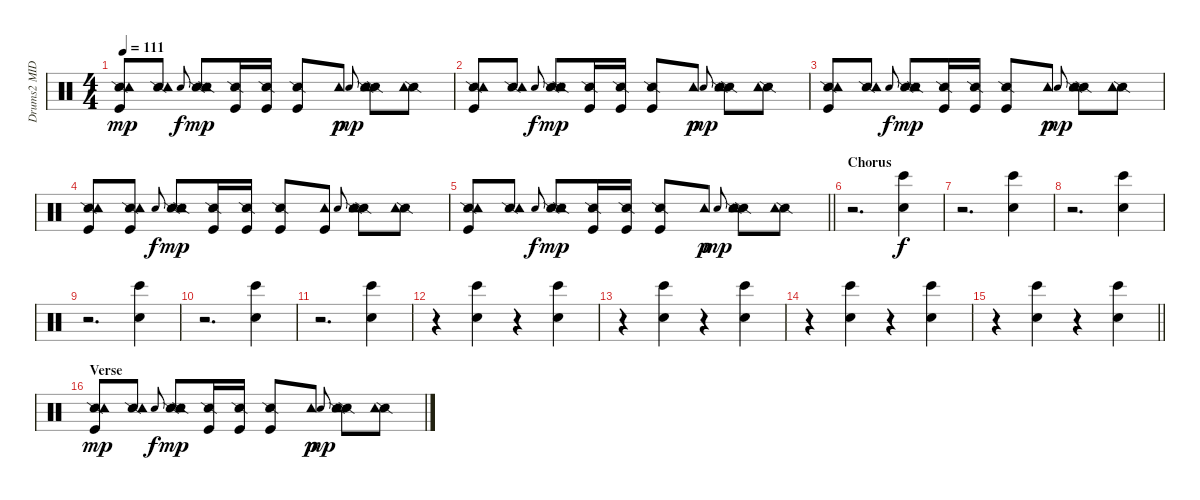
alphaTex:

\track ("Drums2 MIDI" "Drums2 MID") {instrument percussion}
\staff {score}
\articulation defaults
\ts (4 4)
\tempo 111
\clef neutral
\ks c
("Snare (side stick) 2" "Tambourine (hit)" "Kick (hit)").8{dy mp} ("Snare (side stick) 2" "Tambourine (hit)").8 "Snare (hit)".8{gr onbeat dy f} ("Snare (side stick) 2" "Tambourine (hit)" "Snare (side stick) 2").8{dy mp} ("Snare (side stick) 2" "Kick (hit)").16 ("Snare (side stick) 2" "Kick (hit)").16 ("Snare (side stick) 2" "Kick (hit)").8 "Tambourine (hit)".8{dy p} "Snare (hit)".8{gr onbeat dy mp} ("Snare (side stick) 2" "Tambourine (hit)" "Snare (side stick) 2").8 ("Snare (side stick) 2" "Tambourine (hit)").8 |
("Snare (side stick) 2" "Tambourine (hit)" "Kick (hit)").8 ("Snare (side stick) 2" "Tambourine (hit)").8 "Snare (hit)".8{gr onbeat dy f} ("Snare (side stick) 2" "Tambourine (hit)" "Snare (side stick) 2").8{dy mp} ("Snare (side stick) 2" "Kick (hit)").16 ("Snare (side stick) 2" "Kick (hit)").16 ("Snare (side stick) 2" "Kick (hit)").8 "Tambourine (hit)".8{dy p} "Snare (hit)".8{gr onbeat dy mp} ("Snare (side stick) 2" "Tambourine (hit)" "Snare (side stick) 2").8 ("Snare (side stick) 2" "Tambourine (hit)").8 |
("Snare (side stick) 2" "Tambourine (hit)" "Kick (hit)").8 ("Snare (side stick) 2" "Tambourine (hit)").8 "Snare (hit)".8{gr onbeat dy f} ("Snare (side stick) 2" "Tambourine (hit)" "Snare (side stick) 2").8{dy mp} ("Snare (side stick) 2" "Kick (hit)").16 ("Snare (side stick) 2" "Kick (hit)").16 ("Snare (side stick) 2" "Kick (hit)").8 "Tambourine (hit)".8{dy p} "Snare (hit)".8{gr onbeat dy mp} ("Snare (side stick) 2" "Tambourine (hit)" "Snare (side stick) 2").8 ("Snare (side stick) 2" "Tambourine (hit)").8 |
("Snare (side stick) 2" "Tambourine (hit)" "Kick (hit)").8 ("Snare (side stick) 2" "Tambourine (hit)" "Kick (hit)").8 "Snare (hit)".8{gr onbeat dy f} ("Snare (side stick) 2" "Tambourine (hit)" "Snare (side stick) 2").8{dy mp} ("Snare (side stick) 2" "Kick (hit)").16 ("Snare (side stick) 2" "Kick (hit)").16 ("Snare (side stick) 2" "Kick (hit)").8 ("Tambourine (hit)" "Kick (hit)").8 "Snare (hit)".8{gr onbeat} ("Snare (side stick) 2" "Tambourine (hit)" "Snare (side stick) 2").8 ("Snare (side stick) 2" "Tambourine (hit)").8 |
\barLineRight lightlight
("Snare (side stick) 2" "Tambourine (hit)" "Kick (hit)").8 ("Snare (side stick) 2" "Tambourine (hit)").8 "Snare (hit)".8{gr onbeat dy f} ("Snare (side stick) 2" "Tambourine (hit)" "Snare (side stick) 2").8{dy mp} ("Snare (side stick) 2" "Kick (hit)").16 ("Snare (side stick) 2" "Kick (hit)").16 ("Snare (side stick) 2" "Kick (hit)").8 "Tambourine (hit)".8{dy p} "Snare (hit)".8{gr onbeat dy mp} ("Snare (side stick) 2" "Tambourine (hit)" "Snare (side stick) 2").8 ("Snare (side stick) 2" "Tambourine (hit)").8 |
\section ("" "Chorus")
r.2{d} ("Bongo High (hit)" "Hand Clap (hit)").4{dy f} |
r.2{d} ("Bongo High (hit)" "Hand Clap (hit)").4 |
r.2{d} ("Bongo High (hit)" "Hand Clap (hit)").4 |
r.2{d} ("Bongo High (hit)" "Hand Clap (hit)").4 |
r.2{d} ("Bongo High (hit)" "Hand Clap (hit)").4 |
r.2{d} ("Bongo High (hit)" "Hand Clap (hit)").4 |
r.4 ("Bongo High (hit)" "Hand Clap (hit)").4 r.4 ("Bongo High (hit)" "Hand Clap (hit)").4 |
r.4 ("Bongo High (hit)" "Hand Clap (hit)").4 r.4 ("Bongo High (hit)" "Hand Clap (hit)").4 |
r.4 ("Bongo High (hit)" "Hand Clap (hit)").4 r.4 ("Bongo High (hit)" "Hand Clap (hit)").4 |
\barLineRight lightlight
r.4 ("Bongo High (hit)" "Hand Clap (hit)").4 r.4 ("Bongo High (hit)" "Hand Clap (hit)").4 |
\section ("" "Verse")
("Snare (side stick) 2" "Tambourine (hit)" "Kick (hit)").8{dy mp} ("Snare (side stick) 2" "Tambourine (hit)").8 "Snare (hit)".8{gr onbeat dy f} ("Snare (side stick) 2" "Tambourine (hit)" "Snare (side stick) 2").8{dy mp} ("Snare (side stick) 2" "Kick (hit)").16 ("Snare (side stick) 2" "Kick (hit)").16 ("Snare (side stick) 2" "Kick (hit)").8 "Tambourine (hit)".8{dy p} "Snare (hit)".8{gr onbeat dy mp} ("Snare (side stick) 2" "Tambourine (hit)" "Snare (side stick) 2").8 ("Snare (side stick) 2" "Tambourine (hit)").8
